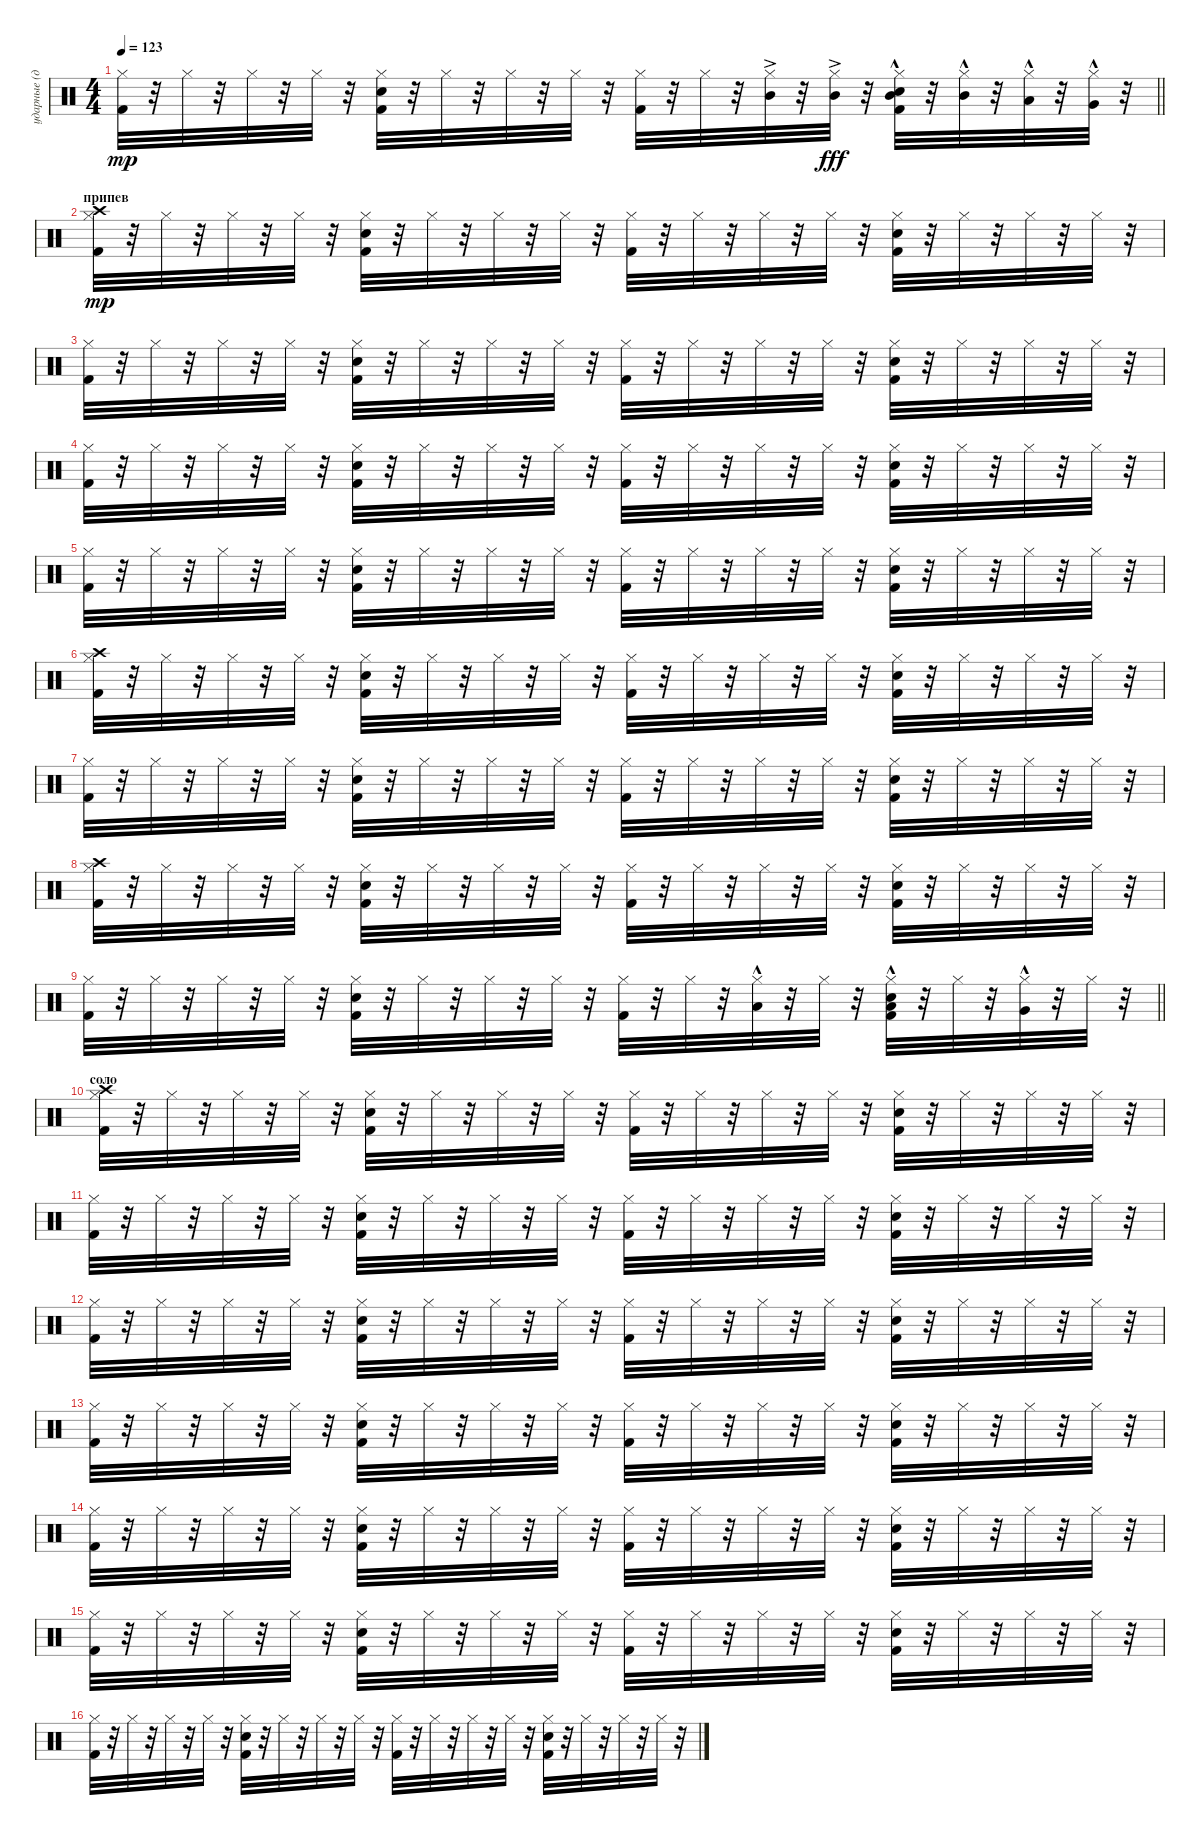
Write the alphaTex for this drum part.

\track ("ударные (драм-машина)" "ударные (д") {instrument percussion}
\staff {score}
\articulation defaults
\ts (4 4)
\tempo 123
\clef neutral
\barLineRight lightlight
\ks c
("Kick (hit) 2" "Hi-Hat (closed)").32{dy mp} r.32 "Hi-Hat (closed)".32 r.32 "Hi-Hat (closed)".32 r.32 "Hi-Hat (closed)".32 r.32 ("Kick (hit) 2" "Snare (hit) 2" "Hi-Hat (closed)").32 r.32 "Hi-Hat (closed)".32 r.32 "Hi-Hat (closed)".32 r.32 "Hi-Hat (closed)".32 r.32 ("Kick (hit) 2" "Hi-Hat (closed)").32 r.32 "Hi-Hat (closed)".32 r.32 ("Mid Tom (hit)"{ac} "Hi-Hat (closed)").32 r.32 ("Hi-Hat (closed)" "Mid Tom (hit)"{ac}).32{dy fff} r.32 ("Kick (hit) 2" "Snare (hit) 2" "Hi-Hat (closed)" "Mid Tom (hit)"{hac}).32 r.32 ("Hi-Hat (closed)" "Mid Tom (hit)"{hac}).32 r.32 ("Hi-Hat (closed)" "Low Tom (hit)"{hac}).32 r.32 ("Hi-Hat (closed)" "Very Low Tom (hit)"{hac}).32 r.32 |
\section ("" "припев")
("Crash high (hit)" "Kick (hit) 2" "Hi-Hat (closed)").32{dy mp} r.32 "Hi-Hat (closed)".32 r.32 "Hi-Hat (closed)".32 r.32 "Hi-Hat (closed)".32 r.32 ("Kick (hit) 2" "Snare (hit) 2" "Hi-Hat (closed)").32 r.32 "Hi-Hat (closed)".32 r.32 "Hi-Hat (closed)".32 r.32 "Hi-Hat (closed)".32 r.32 ("Kick (hit) 2" "Hi-Hat (closed)").32 r.32 "Hi-Hat (closed)".32 r.32 "Hi-Hat (closed)".32 r.32 "Hi-Hat (closed)".32 r.32 ("Kick (hit) 2" "Snare (hit) 2" "Hi-Hat (closed)").32 r.32 "Hi-Hat (closed)".32 r.32 "Hi-Hat (closed)".32 r.32 "Hi-Hat (closed)".32 r.32 |
("Kick (hit) 2" "Hi-Hat (closed)").32 r.32 "Hi-Hat (closed)".32 r.32 "Hi-Hat (closed)".32 r.32 "Hi-Hat (closed)".32 r.32 ("Kick (hit) 2" "Snare (hit) 2" "Hi-Hat (closed)").32 r.32 "Hi-Hat (closed)".32 r.32 "Hi-Hat (closed)".32 r.32 "Hi-Hat (closed)".32 r.32 ("Kick (hit) 2" "Hi-Hat (closed)").32 r.32 "Hi-Hat (closed)".32 r.32 "Hi-Hat (closed)".32 r.32 "Hi-Hat (closed)".32 r.32 ("Kick (hit) 2" "Snare (hit) 2" "Hi-Hat (closed)").32 r.32 "Hi-Hat (closed)".32 r.32 "Hi-Hat (closed)".32 r.32 "Hi-Hat (closed)".32 r.32 |
("Kick (hit) 2" "Hi-Hat (closed)").32 r.32 "Hi-Hat (closed)".32 r.32 "Hi-Hat (closed)".32 r.32 "Hi-Hat (closed)".32 r.32 ("Kick (hit) 2" "Snare (hit) 2" "Hi-Hat (closed)").32 r.32 "Hi-Hat (closed)".32 r.32 "Hi-Hat (closed)".32 r.32 "Hi-Hat (closed)".32 r.32 ("Kick (hit) 2" "Hi-Hat (closed)").32 r.32 "Hi-Hat (closed)".32 r.32 "Hi-Hat (closed)".32 r.32 "Hi-Hat (closed)".32 r.32 ("Kick (hit) 2" "Snare (hit) 2" "Hi-Hat (closed)").32 r.32 "Hi-Hat (closed)".32 r.32 "Hi-Hat (closed)".32 r.32 "Hi-Hat (closed)".32 r.32 |
("Kick (hit) 2" "Hi-Hat (closed)").32 r.32 "Hi-Hat (closed)".32 r.32 "Hi-Hat (closed)".32 r.32 "Hi-Hat (closed)".32 r.32 ("Kick (hit) 2" "Snare (hit) 2" "Hi-Hat (closed)").32 r.32 "Hi-Hat (closed)".32 r.32 "Hi-Hat (closed)".32 r.32 "Hi-Hat (closed)".32 r.32 ("Kick (hit) 2" "Hi-Hat (closed)").32 r.32 "Hi-Hat (closed)".32 r.32 "Hi-Hat (closed)".32 r.32 "Hi-Hat (closed)".32 r.32 ("Kick (hit) 2" "Snare (hit) 2" "Hi-Hat (closed)").32 r.32 "Hi-Hat (closed)".32 r.32 "Hi-Hat (closed)".32 r.32 "Hi-Hat (closed)".32 r.32 |
("Crash high (hit)" "Hi-Hat (closed)" "Kick (hit) 2").32 r.32 "Hi-Hat (closed)".32 r.32 "Hi-Hat (closed)".32 r.32 "Hi-Hat (closed)".32 r.32 ("Kick (hit) 2" "Snare (hit) 2" "Hi-Hat (closed)").32 r.32 "Hi-Hat (closed)".32 r.32 "Hi-Hat (closed)".32 r.32 "Hi-Hat (closed)".32 r.32 ("Kick (hit) 2" "Hi-Hat (closed)").32 r.32 "Hi-Hat (closed)".32 r.32 "Hi-Hat (closed)".32 r.32 "Hi-Hat (closed)".32 r.32 ("Kick (hit) 2" "Snare (hit) 2" "Hi-Hat (closed)").32 r.32 "Hi-Hat (closed)".32 r.32 "Hi-Hat (closed)".32 r.32 "Hi-Hat (closed)".32 r.32 |
("Kick (hit) 2" "Hi-Hat (closed)").32 r.32 "Hi-Hat (closed)".32 r.32 "Hi-Hat (closed)".32 r.32 "Hi-Hat (closed)".32 r.32 ("Kick (hit) 2" "Snare (hit) 2" "Hi-Hat (closed)").32 r.32 "Hi-Hat (closed)".32 r.32 "Hi-Hat (closed)".32 r.32 "Hi-Hat (closed)".32 r.32 ("Kick (hit) 2" "Hi-Hat (closed)").32 r.32 "Hi-Hat (closed)".32 r.32 "Hi-Hat (closed)".32 r.32 "Hi-Hat (closed)".32 r.32 ("Kick (hit) 2" "Snare (hit) 2" "Hi-Hat (closed)").32 r.32 "Hi-Hat (closed)".32 r.32 "Hi-Hat (closed)".32 r.32 "Hi-Hat (closed)".32 r.32 |
("Kick (hit) 2" "Hi-Hat (closed)" "Crash high (hit)").32 r.32 "Hi-Hat (closed)".32 r.32 "Hi-Hat (closed)".32 r.32 "Hi-Hat (closed)".32 r.32 ("Kick (hit) 2" "Snare (hit) 2" "Hi-Hat (closed)").32 r.32 "Hi-Hat (closed)".32 r.32 "Hi-Hat (closed)".32 r.32 "Hi-Hat (closed)".32 r.32 ("Kick (hit) 2" "Hi-Hat (closed)").32 r.32 "Hi-Hat (closed)".32 r.32 "Hi-Hat (closed)".32 r.32 "Hi-Hat (closed)".32 r.32 ("Kick (hit) 2" "Snare (hit) 2" "Hi-Hat (closed)").32 r.32 "Hi-Hat (closed)".32 r.32 "Hi-Hat (closed)".32 r.32 "Hi-Hat (closed)".32 r.32 |
\barLineRight lightlight
("Kick (hit) 2" "Hi-Hat (closed)").32 r.32 "Hi-Hat (closed)".32 r.32 "Hi-Hat (closed)".32 r.32 "Hi-Hat (closed)".32 r.32 ("Kick (hit) 2" "Snare (hit) 2" "Hi-Hat (closed)").32 r.32 "Hi-Hat (closed)".32 r.32 "Hi-Hat (closed)".32 r.32 "Hi-Hat (closed)".32 r.32 ("Kick (hit) 2" "Hi-Hat (closed)").32 r.32 "Hi-Hat (closed)".32 r.32 ("Low Tom (hit)"{hac} "Hi-Hat (closed)").32 r.32 "Hi-Hat (closed)".32 r.32 ("Low Tom (hit)"{hac} "Kick (hit) 2" "Snare (hit) 2" "Hi-Hat (closed)").32 r.32 "Hi-Hat (closed)".32 r.32 ("Very Low Tom (hit)"{hac} "Hi-Hat (closed)").32 r.32 "Hi-Hat (closed)".32 r.32 |
\section ("" "соло")
("Kick (hit) 2" "Hi-Hat (closed)" "Crash high (hit)").32 r.32 "Hi-Hat (closed)".32 r.32 "Hi-Hat (closed)".32 r.32 "Hi-Hat (closed)".32 r.32 ("Kick (hit) 2" "Snare (hit) 2" "Hi-Hat (closed)").32 r.32 "Hi-Hat (closed)".32 r.32 "Hi-Hat (closed)".32 r.32 "Hi-Hat (closed)".32 r.32 ("Kick (hit) 2" "Hi-Hat (closed)").32 r.32 "Hi-Hat (closed)".32 r.32 "Hi-Hat (closed)".32 r.32 "Hi-Hat (closed)".32 r.32 ("Kick (hit) 2" "Snare (hit) 2" "Hi-Hat (closed)").32 r.32 "Hi-Hat (closed)".32 r.32 "Hi-Hat (closed)".32 r.32 "Hi-Hat (closed)".32 r.32 |
("Kick (hit) 2" "Hi-Hat (closed)").32 r.32 "Hi-Hat (closed)".32 r.32 "Hi-Hat (closed)".32 r.32 "Hi-Hat (closed)".32 r.32 ("Kick (hit) 2" "Snare (hit) 2" "Hi-Hat (closed)").32 r.32 "Hi-Hat (closed)".32 r.32 "Hi-Hat (closed)".32 r.32 "Hi-Hat (closed)".32 r.32 ("Kick (hit) 2" "Hi-Hat (closed)").32 r.32 "Hi-Hat (closed)".32 r.32 "Hi-Hat (closed)".32 r.32 "Hi-Hat (closed)".32 r.32 ("Kick (hit) 2" "Snare (hit) 2" "Hi-Hat (closed)").32 r.32 "Hi-Hat (closed)".32 r.32 "Hi-Hat (closed)".32 r.32 "Hi-Hat (closed)".32 r.32 |
("Kick (hit) 2" "Hi-Hat (closed)").32 r.32 "Hi-Hat (closed)".32 r.32 "Hi-Hat (closed)".32 r.32 "Hi-Hat (closed)".32 r.32 ("Kick (hit) 2" "Snare (hit) 2" "Hi-Hat (closed)").32 r.32 "Hi-Hat (closed)".32 r.32 "Hi-Hat (closed)".32 r.32 "Hi-Hat (closed)".32 r.32 ("Kick (hit) 2" "Hi-Hat (closed)").32 r.32 "Hi-Hat (closed)".32 r.32 "Hi-Hat (closed)".32 r.32 "Hi-Hat (closed)".32 r.32 ("Kick (hit) 2" "Snare (hit) 2" "Hi-Hat (closed)").32 r.32 "Hi-Hat (closed)".32 r.32 "Hi-Hat (closed)".32 r.32 "Hi-Hat (closed)".32 r.32 |
("Kick (hit) 2" "Hi-Hat (closed)").32 r.32 "Hi-Hat (closed)".32 r.32 "Hi-Hat (closed)".32 r.32 "Hi-Hat (closed)".32 r.32 ("Kick (hit) 2" "Snare (hit) 2" "Hi-Hat (closed)").32 r.32 "Hi-Hat (closed)".32 r.32 "Hi-Hat (closed)".32 r.32 "Hi-Hat (closed)".32 r.32 ("Kick (hit) 2" "Hi-Hat (closed)").32 r.32 "Hi-Hat (closed)".32 r.32 "Hi-Hat (closed)".32 r.32 "Hi-Hat (closed)".32 r.32 ("Kick (hit) 2" "Snare (hit) 2" "Hi-Hat (closed)").32 r.32 "Hi-Hat (closed)".32 r.32 "Hi-Hat (closed)".32 r.32 "Hi-Hat (closed)".32 r.32 |
("Kick (hit) 2" "Hi-Hat (closed)").32 r.32 "Hi-Hat (closed)".32 r.32 "Hi-Hat (closed)".32 r.32 "Hi-Hat (closed)".32 r.32 ("Kick (hit) 2" "Snare (hit) 2" "Hi-Hat (closed)").32 r.32 "Hi-Hat (closed)".32 r.32 "Hi-Hat (closed)".32 r.32 "Hi-Hat (closed)".32 r.32 ("Kick (hit) 2" "Hi-Hat (closed)").32 r.32 "Hi-Hat (closed)".32 r.32 "Hi-Hat (closed)".32 r.32 "Hi-Hat (closed)".32 r.32 ("Kick (hit) 2" "Snare (hit) 2" "Hi-Hat (closed)").32 r.32 "Hi-Hat (closed)".32 r.32 "Hi-Hat (closed)".32 r.32 "Hi-Hat (closed)".32 r.32 |
("Kick (hit) 2" "Hi-Hat (closed)").32 r.32 "Hi-Hat (closed)".32 r.32 "Hi-Hat (closed)".32 r.32 "Hi-Hat (closed)".32 r.32 ("Kick (hit) 2" "Snare (hit) 2" "Hi-Hat (closed)").32 r.32 "Hi-Hat (closed)".32 r.32 "Hi-Hat (closed)".32 r.32 "Hi-Hat (closed)".32 r.32 ("Kick (hit) 2" "Hi-Hat (closed)").32 r.32 "Hi-Hat (closed)".32 r.32 "Hi-Hat (closed)".32 r.32 "Hi-Hat (closed)".32 r.32 ("Kick (hit) 2" "Snare (hit) 2" "Hi-Hat (closed)").32 r.32 "Hi-Hat (closed)".32 r.32 "Hi-Hat (closed)".32 r.32 "Hi-Hat (closed)".32 r.32 |
("Kick (hit) 2" "Hi-Hat (closed)").32 r.32 "Hi-Hat (closed)".32 r.32 "Hi-Hat (closed)".32 r.32 "Hi-Hat (closed)".32 r.32 ("Kick (hit) 2" "Snare (hit) 2" "Hi-Hat (closed)").32 r.32 "Hi-Hat (closed)".32 r.32 "Hi-Hat (closed)".32 r.32 "Hi-Hat (closed)".32 r.32 ("Kick (hit) 2" "Hi-Hat (closed)").32 r.32 "Hi-Hat (closed)".32 r.32 "Hi-Hat (closed)".32 r.32 "Hi-Hat (closed)".32 r.32 ("Kick (hit) 2" "Snare (hit) 2" "Hi-Hat (closed)").32 r.32 "Hi-Hat (closed)".32 r.32 "Hi-Hat (closed)".32 r.32 "Hi-Hat (closed)".32 r.32
